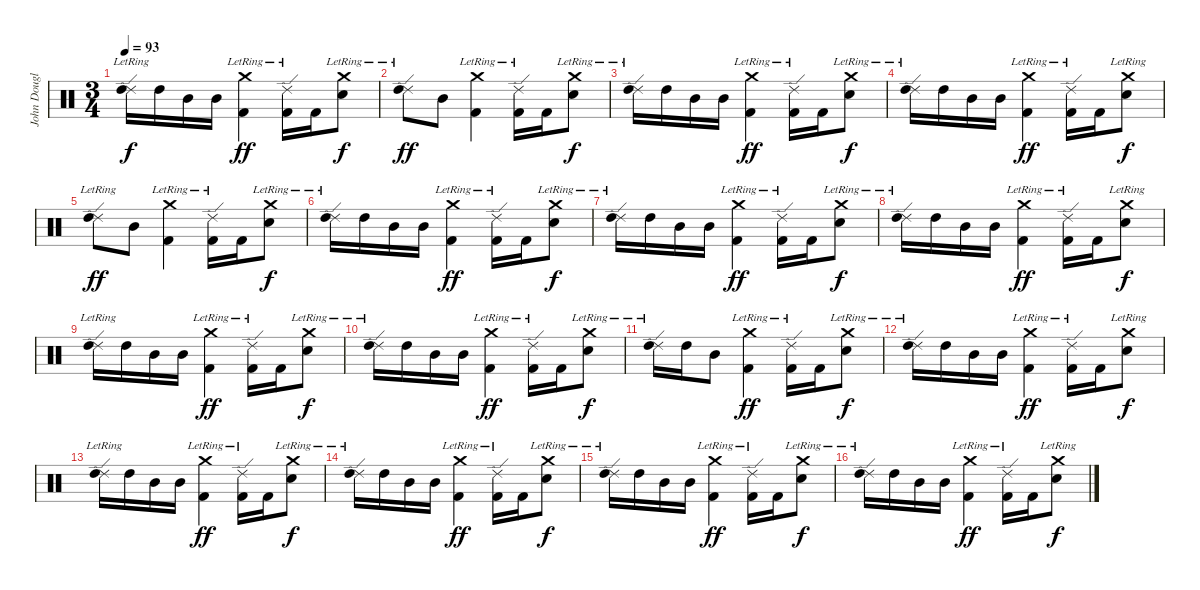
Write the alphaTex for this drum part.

\track ("John Douglas (Drums)" "John Dougl") {instrument percussion}
\staff {score}
\articulation defaults
\ts (3 4)
\tempo 93
\clef neutral
\ks c
("Ride (edge) 2"{lr} "High Tom (hit)").16{dy f} "High Tom (hit)".16 "Mid Tom (hit)".16 "Mid Tom (hit)".16 ("Crash medium (hit)"{lr} "Kick (hit) 2").4{dy ff} ("Ride (edge) 2"{lr} "Kick (hit) 2").16 "Kick (hit) 2".16 ("Crash medium (hit)"{lr} "Snare (hit) 2").8{dy f} |
("Ride (edge) 2"{lr} "High Tom (hit)").8{dy ff} "Mid Tom (hit)".8 ("Crash medium (hit)"{lr} "Kick (hit) 2").4 ("Ride (edge) 2"{lr} "Kick (hit) 2").16 "Kick (hit) 2".16 ("Crash medium (hit)"{lr} "Snare (hit) 2").8{dy f} |
("Ride (edge) 2"{lr} "High Tom (hit)").16 "High Tom (hit)".16 "Mid Tom (hit)".16 "Mid Tom (hit)".16 ("Crash medium (hit)"{lr} "Kick (hit) 2").4{dy ff} ("Ride (edge) 2"{lr} "Kick (hit) 2").16 "Kick (hit) 2".16 ("Crash medium (hit)"{lr} "Snare (hit) 2").8{dy f} |
("Ride (edge) 2"{lr} "High Tom (hit)").16 "High Tom (hit)".16 "Mid Tom (hit)".16 "Mid Tom (hit)".16 ("Crash medium (hit)"{lr} "Kick (hit) 2").4{dy ff} ("Ride (edge) 2"{lr} "Kick (hit) 2").16 "Kick (hit) 2".16 ("Crash medium (hit)"{lr} "Snare (hit) 2").8{dy f} |
("Ride (edge) 2"{lr} "High Tom (hit)").8{dy ff} "Mid Tom (hit)".8 ("Crash medium (hit)"{lr} "Kick (hit) 2").4 ("Ride (edge) 2"{lr} "Kick (hit) 2").16 "Kick (hit) 2".16 ("Crash medium (hit)"{lr} "Snare (hit) 2").8{dy f} |
("Ride (edge) 2"{lr} "High Tom (hit)").16 "High Tom (hit)".16 "Mid Tom (hit)".16 "Mid Tom (hit)".16 ("Crash medium (hit)"{lr} "Kick (hit) 2").4{dy ff} ("Ride (edge) 2"{lr} "Kick (hit) 2").16 "Kick (hit) 2".16 ("Crash medium (hit)"{lr} "Snare (hit) 2").8{dy f} |
("Ride (edge) 2"{lr} "High Tom (hit)").16 "High Tom (hit)".16 "Mid Tom (hit)".16 "Mid Tom (hit)".16 ("Crash medium (hit)"{lr} "Kick (hit) 2").4{dy ff} ("Ride (edge) 2"{lr} "Kick (hit) 2").16 "Kick (hit) 2".16 ("Crash medium (hit)"{lr} "Snare (hit) 2").8{dy f} |
("Ride (edge) 2"{lr} "High Tom (hit)").16 "High Tom (hit)".16 "Mid Tom (hit)".16 "Mid Tom (hit)".16 ("Crash medium (hit)"{lr} "Kick (hit) 2").4{dy ff} ("Ride (edge) 2"{lr} "Kick (hit) 2").16 "Kick (hit) 2".16 ("Crash medium (hit)"{lr} "Snare (hit) 2").8{dy f} |
("Ride (edge) 2"{lr} "High Tom (hit)").16 "High Tom (hit)".16 "Mid Tom (hit)".16 "Mid Tom (hit)".16 ("Crash medium (hit)"{lr} "Kick (hit) 2").4{dy ff} ("Ride (edge) 2"{lr} "Kick (hit) 2").16 "Kick (hit) 2".16 ("Crash medium (hit)"{lr} "Snare (hit) 2").8{dy f} |
("Ride (edge) 2"{lr} "High Tom (hit)").16 "High Tom (hit)".16 "Mid Tom (hit)".16 "Mid Tom (hit)".16 ("Crash medium (hit)"{lr} "Kick (hit) 2").4{dy ff} ("Ride (edge) 2"{lr} "Kick (hit) 2").16 "Kick (hit) 2".16 ("Crash medium (hit)"{lr} "Snare (hit) 2").8{dy f} |
("Ride (edge) 2"{lr} "High Tom (hit)").16 "High Tom (hit)".16 "Mid Tom (hit)".8 ("Crash medium (hit)"{lr} "Kick (hit) 2").4{dy ff} ("Ride (edge) 2"{lr} "Kick (hit) 2").16 "Kick (hit) 2".16 ("Crash medium (hit)"{lr} "Snare (hit) 2").8{dy f} |
("Ride (edge) 2"{lr} "High Tom (hit)").16 "High Tom (hit)".16 "Mid Tom (hit)".16 "Mid Tom (hit)".16 ("Crash medium (hit)"{lr} "Kick (hit) 2").4{dy ff} ("Ride (edge) 2"{lr} "Kick (hit) 2").16 "Kick (hit) 2".16 ("Crash medium (hit)"{lr} "Snare (hit) 2").8{dy f} |
("Ride (edge) 2"{lr} "High Tom (hit)").16 "High Tom (hit)".16 "Mid Tom (hit)".16 "Mid Tom (hit)".16 ("Crash medium (hit)"{lr} "Kick (hit) 2").4{dy ff} ("Ride (edge) 2"{lr} "Kick (hit) 2").16 "Kick (hit) 2".16 ("Crash medium (hit)"{lr} "Snare (hit) 2").8{dy f} |
("Ride (edge) 2"{lr} "High Tom (hit)").16 "High Tom (hit)".16 "Mid Tom (hit)".16 "Mid Tom (hit)".16 ("Crash medium (hit)"{lr} "Kick (hit) 2").4{dy ff} ("Ride (edge) 2"{lr} "Kick (hit) 2").16 "Kick (hit) 2".16 ("Crash medium (hit)"{lr} "Snare (hit) 2").8{dy f} |
("Ride (edge) 2"{lr} "High Tom (hit)").16 "High Tom (hit)".16 "Mid Tom (hit)".16 "Mid Tom (hit)".16 ("Crash medium (hit)"{lr} "Kick (hit) 2").4{dy ff} ("Ride (edge) 2"{lr} "Kick (hit) 2").16 "Kick (hit) 2".16 ("Crash medium (hit)"{lr} "Snare (hit) 2").8{dy f} |
("Ride (edge) 2"{lr} "High Tom (hit)").16 "High Tom (hit)".16 "Mid Tom (hit)".16 "Mid Tom (hit)".16 ("Crash medium (hit)"{lr} "Kick (hit) 2").4{dy ff} ("Ride (edge) 2"{lr} "Kick (hit) 2").16 "Kick (hit) 2".16 ("Crash medium (hit)"{lr} "Snare (hit) 2").8{dy f}
